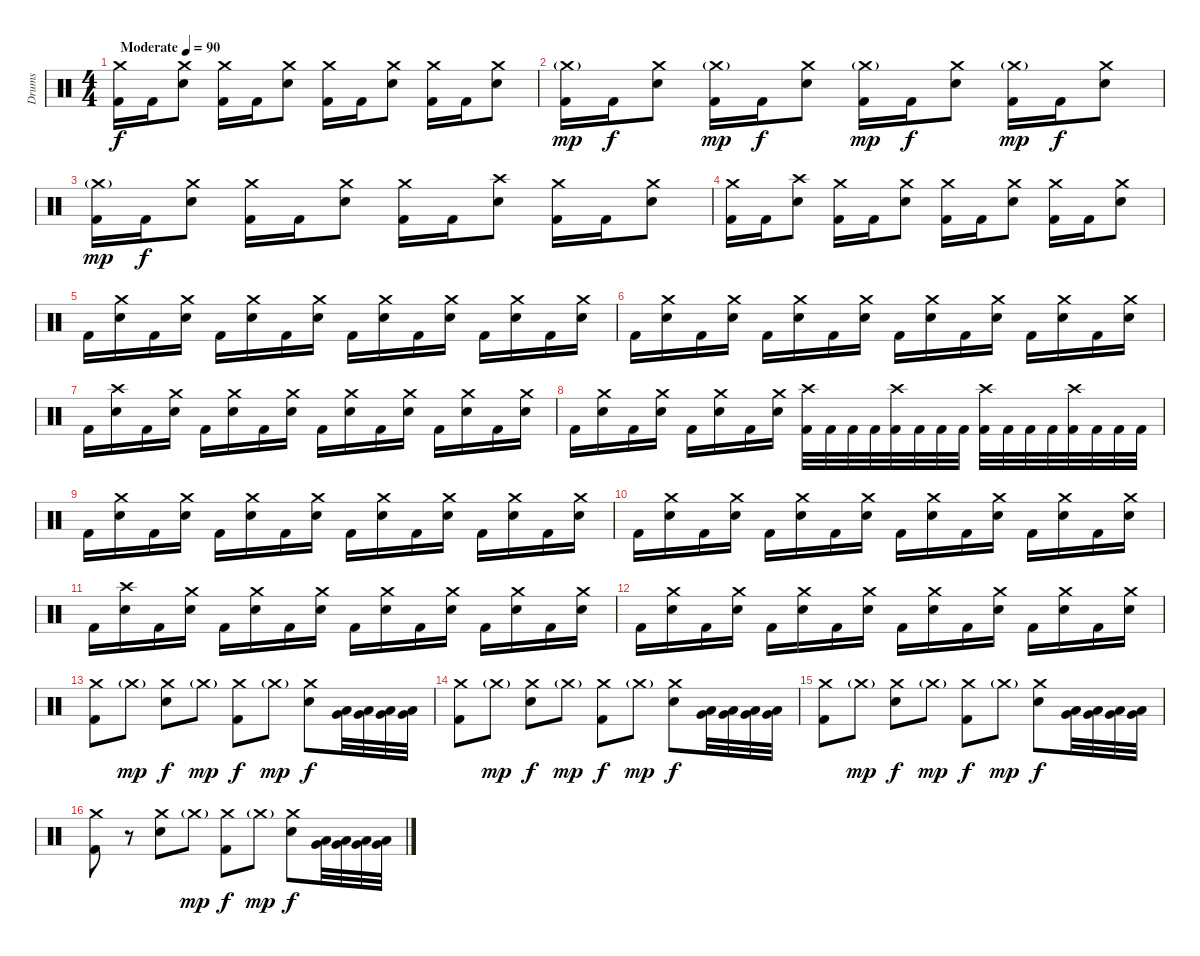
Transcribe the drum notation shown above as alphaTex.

\track ("Drums" "Drums") {instrument percussion}
\staff {score}
\articulation defaults
\ts (4 4)
\tempo (90 "Moderate")
\clef neutral
\ks c
("Crash medium (hit)" "Kick (hit) 2").16{dy f} "Kick (hit) 2".16 ("Crash medium (hit)" "Snare (hit) 2").8 ("Crash medium (hit)" "Kick (hit) 2").16 "Kick (hit) 2".16 ("Crash medium (hit)" "Snare (hit) 2").8 ("Crash medium (hit)" "Kick (hit) 2").16 "Kick (hit) 2".16 ("Crash medium (hit)" "Snare (hit) 2").8 ("Crash medium (hit)" "Kick (hit) 2").16 "Kick (hit) 2".16 ("Crash medium (hit)" "Snare (hit) 2").8 |
("Crash medium (hit)"{g} "Kick (hit) 2").16{dy mp} "Kick (hit) 2".16{dy f} ("Crash medium (hit)" "Snare (hit) 2").8 ("Crash medium (hit)"{g} "Kick (hit) 2").16{dy mp} "Kick (hit) 2".16{dy f} ("Crash medium (hit)" "Snare (hit) 2").8 ("Crash medium (hit)"{g} "Kick (hit) 2").16{dy mp} "Kick (hit) 2".16{dy f} ("Crash medium (hit)" "Snare (hit) 2").8 ("Crash medium (hit)"{g} "Kick (hit) 2").16{dy mp} "Kick (hit) 2".16{dy f} ("Crash medium (hit)" "Snare (hit) 2").8 |
("Crash medium (hit)"{g} "Kick (hit) 2").16{dy mp} "Kick (hit) 2".16{dy f} ("Crash medium (hit)" "Snare (hit) 2").8 ("Crash medium (hit)" "Kick (hit) 2").16 "Kick (hit) 2".16 ("Crash medium (hit)" "Snare (hit) 2").8 ("Crash medium (hit)" "Kick (hit) 2").16 "Kick (hit) 2".16 ("Crash high (hit)" "Snare (hit) 2").8 ("Crash medium (hit)" "Kick (hit) 2").16 "Kick (hit) 2".16 ("Crash medium (hit)" "Snare (hit) 2").8 |
("Crash medium (hit)" "Kick (hit) 2").16 "Kick (hit) 2".16 ("Crash high (hit)" "Snare (hit) 2").8 ("Crash medium (hit)" "Kick (hit) 2").16 "Kick (hit) 2".16 ("Crash medium (hit)" "Snare (hit) 2").8 ("Crash medium (hit)" "Kick (hit) 2").16 "Kick (hit) 2".16 ("Crash medium (hit)" "Snare (hit) 2").8 ("Crash medium (hit)" "Kick (hit) 2").16 "Kick (hit) 2".16 ("Crash medium (hit)" "Snare (hit) 2").8 |
"Kick (hit) 2".16 ("Crash medium (hit)" "Snare (hit) 2").16 "Kick (hit) 2".16 ("Crash medium (hit)" "Snare (hit) 2").16 "Kick (hit) 2".16 ("Crash medium (hit)" "Snare (hit) 2").16 "Kick (hit) 2".16 ("Crash medium (hit)" "Snare (hit) 2").16 "Kick (hit) 2".16 ("Crash medium (hit)" "Snare (hit) 2").16 "Kick (hit) 2".16 ("Crash medium (hit)" "Snare (hit) 2").16 "Kick (hit) 2".16 ("Crash medium (hit)" "Snare (hit) 2").16 "Kick (hit) 2".16 ("Crash medium (hit)" "Snare (hit) 2").16 |
"Kick (hit) 2".16 ("Crash medium (hit)" "Snare (hit) 2").16 "Kick (hit) 2".16 ("Crash medium (hit)" "Snare (hit) 2").16 "Kick (hit) 2".16 ("Crash medium (hit)" "Snare (hit) 2").16 "Kick (hit) 2".16 ("Crash medium (hit)" "Snare (hit) 2").16 "Kick (hit) 2".16 ("Crash medium (hit)" "Snare (hit) 2").16 "Kick (hit) 2".16 ("Crash medium (hit)" "Snare (hit) 2").16 "Kick (hit) 2".16 ("Crash medium (hit)" "Snare (hit) 2").16 "Kick (hit) 2".16 ("Crash medium (hit)" "Snare (hit) 2").16 |
"Kick (hit) 2".16 ("Crash high (hit)" "Snare (hit) 2").16 "Kick (hit) 2".16 ("Crash medium (hit)" "Snare (hit) 2").16 "Kick (hit) 2".16 ("Crash medium (hit)" "Snare (hit) 2").16 "Kick (hit) 2".16 ("Crash medium (hit)" "Snare (hit) 2").16 "Kick (hit) 2".16 ("Crash medium (hit)" "Snare (hit) 2").16 "Kick (hit) 2".16 ("Crash medium (hit)" "Snare (hit) 2").16 "Kick (hit) 2".16 ("Crash medium (hit)" "Snare (hit) 2").16 "Kick (hit) 2".16 ("Crash medium (hit)" "Snare (hit) 2").16 |
"Kick (hit) 2".16 ("Crash medium (hit)" "Snare (hit) 2").16 "Kick (hit) 2".16 ("Crash medium (hit)" "Snare (hit) 2").16 "Kick (hit) 2".16 ("Crash medium (hit)" "Snare (hit) 2").16 "Kick (hit) 2".16 ("Crash medium (hit)" "Snare (hit) 2").16 ("Crash high (hit)" "Kick (hit) 2").32 "Kick (hit) 2".32 "Kick (hit) 2".32 "Kick (hit) 2".32 ("Crash high (hit)" "Kick (hit) 2").32 "Kick (hit) 2".32 "Kick (hit) 2".32 "Kick (hit) 2".32 ("Crash high (hit)" "Kick (hit) 2").32 "Kick (hit) 2".32 "Kick (hit) 2".32 "Kick (hit) 2".32 ("Crash high (hit)" "Kick (hit) 2").32 "Kick (hit) 2".32 "Kick (hit) 2".32 "Kick (hit) 2".32 |
"Kick (hit) 2".16 ("Crash medium (hit)" "Snare (hit) 2").16 "Kick (hit) 2".16 ("Crash medium (hit)" "Snare (hit) 2").16 "Kick (hit) 2".16 ("Crash medium (hit)" "Snare (hit) 2").16 "Kick (hit) 2".16 ("Crash medium (hit)" "Snare (hit) 2").16 "Kick (hit) 2".16 ("Crash medium (hit)" "Snare (hit) 2").16 "Kick (hit) 2".16 ("Crash medium (hit)" "Snare (hit) 2").16 "Kick (hit) 2".16 ("Crash medium (hit)" "Snare (hit) 2").16 "Kick (hit) 2".16 ("Crash medium (hit)" "Snare (hit) 2").16 |
"Kick (hit) 2".16 ("Crash medium (hit)" "Snare (hit) 2").16 "Kick (hit) 2".16 ("Crash medium (hit)" "Snare (hit) 2").16 "Kick (hit) 2".16 ("Crash medium (hit)" "Snare (hit) 2").16 "Kick (hit) 2".16 ("Crash medium (hit)" "Snare (hit) 2").16 "Kick (hit) 2".16 ("Crash medium (hit)" "Snare (hit) 2").16 "Kick (hit) 2".16 ("Crash medium (hit)" "Snare (hit) 2").16 "Kick (hit) 2".16 ("Crash medium (hit)" "Snare (hit) 2").16 "Kick (hit) 2".16 ("Crash medium (hit)" "Snare (hit) 2").16 |
"Kick (hit) 2".16 ("Crash high (hit)" "Snare (hit) 2").16 "Kick (hit) 2".16 ("Crash medium (hit)" "Snare (hit) 2").16 "Kick (hit) 2".16 ("Crash medium (hit)" "Snare (hit) 2").16 "Kick (hit) 2".16 ("Crash medium (hit)" "Snare (hit) 2").16 "Kick (hit) 2".16 ("Crash medium (hit)" "Snare (hit) 2").16 "Kick (hit) 2".16 ("Crash medium (hit)" "Snare (hit) 2").16 "Kick (hit) 2".16 ("Crash medium (hit)" "Snare (hit) 2").16 "Kick (hit) 2".16 ("Crash medium (hit)" "Snare (hit) 2").16 |
"Kick (hit) 2".16 ("Crash medium (hit)" "Snare (hit) 2").16 "Kick (hit) 2".16 ("Crash medium (hit)" "Snare (hit) 2").16 "Kick (hit) 2".16 ("Crash medium (hit)" "Snare (hit) 2").16 "Kick (hit) 2".16 ("Crash medium (hit)" "Snare (hit) 2").16 "Kick (hit) 2".16 ("Crash medium (hit)" "Snare (hit) 2").16 "Kick (hit) 2".16 ("Crash medium (hit)" "Snare (hit) 2").16 "Kick (hit) 2".16 ("Crash medium (hit)" "Snare (hit) 2").16 "Kick (hit) 2".16 ("Crash medium (hit)" "Snare (hit) 2").16 |
("Crash medium (hit)" "Kick (hit) 2").8 "Crash medium (hit)"{g}.8{dy mp} ("Crash medium (hit)" "Snare (hit) 2").8{dy f} "Crash medium (hit)"{g}.8{dy mp} ("Crash medium (hit)" "Kick (hit) 2").8{dy f} "Crash medium (hit)"{g}.8{dy mp} ("Crash medium (hit)" "Snare (hit) 2").8{dy f} ("Very Low Tom (hit)" "Low Floor Tom (hit)").32 ("Very Low Tom (hit)" "Low Floor Tom (hit)").32 ("Very Low Tom (hit)" "Low Floor Tom (hit)").32 ("Very Low Tom (hit)" "Low Floor Tom (hit)").32 |
("Crash medium (hit)" "Kick (hit) 2").8 "Crash medium (hit)"{g}.8{dy mp} ("Crash medium (hit)" "Snare (hit) 2").8{dy f} "Crash medium (hit)"{g}.8{dy mp} ("Crash medium (hit)" "Kick (hit) 2").8{dy f} "Crash medium (hit)"{g}.8{dy mp} ("Crash medium (hit)" "Snare (hit) 2").8{dy f} ("Very Low Tom (hit)" "Low Floor Tom (hit)").32 ("Very Low Tom (hit)" "Low Floor Tom (hit)").32 ("Very Low Tom (hit)" "Low Floor Tom (hit)").32 ("Very Low Tom (hit)" "Low Floor Tom (hit)").32 |
("Crash medium (hit)" "Kick (hit) 2").8 "Crash medium (hit)"{g}.8{dy mp} ("Crash medium (hit)" "Snare (hit) 2").8{dy f} "Crash medium (hit)"{g}.8{dy mp} ("Crash medium (hit)" "Kick (hit) 2").8{dy f} "Crash medium (hit)"{g}.8{dy mp} ("Crash medium (hit)" "Snare (hit) 2").8{dy f} ("Very Low Tom (hit)" "Low Floor Tom (hit)").32 ("Very Low Tom (hit)" "Low Floor Tom (hit)").32 ("Very Low Tom (hit)" "Low Floor Tom (hit)").32 ("Very Low Tom (hit)" "Low Floor Tom (hit)").32 |
("Crash medium (hit)" "Kick (hit) 2").8 r.8 ("Crash medium (hit)" "Snare (hit) 2").8 "Crash medium (hit)"{g}.8{dy mp} ("Crash medium (hit)" "Kick (hit) 2").8{dy f} "Crash medium (hit)"{g}.8{dy mp} ("Crash medium (hit)" "Snare (hit) 2").8{dy f} ("Very Low Tom (hit)" "Low Floor Tom (hit)").32 ("Very Low Tom (hit)" "Low Floor Tom (hit)").32 ("Very Low Tom (hit)" "Low Floor Tom (hit)").32 ("Very Low Tom (hit)" "Low Floor Tom (hit)").32
